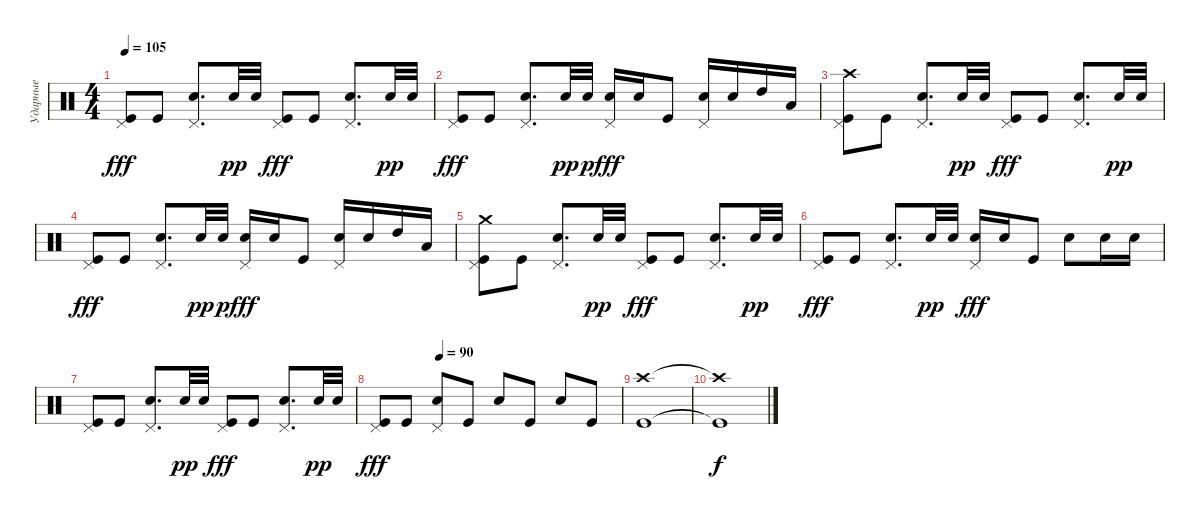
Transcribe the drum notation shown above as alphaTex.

\track ("Ударные" "Ударные") {instrument percussion}
\staff {score}
\articulation defaults
\ts (4 4)
\tempo 105
\clef neutral
\ks c
("Kick (hit)" "Pedal Hi-Hat (hit)").8{dy fff} "Kick (hit)".8 ("Snare (hit) 2" "Pedal Hi-Hat (hit)").8{d} "Snare (hit) 2".32{dy pp} "Snare (hit) 2".32 ("Kick (hit)" "Pedal Hi-Hat (hit)").8{dy fff} "Kick (hit)".8 ("Snare (hit) 2" "Pedal Hi-Hat (hit)").8{d} "Snare (hit) 2".32{dy pp} "Snare (hit) 2".32 |
("Kick (hit)" "Pedal Hi-Hat (hit)").8{dy fff} "Kick (hit)".8 ("Snare (hit) 2" "Pedal Hi-Hat (hit)").8{d} "Snare (hit) 2".32{dy pp} "Snare (hit) 2".32{dy p} ("Snare (hit) 2" "Pedal Hi-Hat (hit)").16{dy fff} "Snare (hit) 2".16 "Kick (hit)".8 ("Snare (hit) 2" "Pedal Hi-Hat (hit)").16 "Snare (hit) 2".16 "High Tom (hit)".16 "Low Tom (hit)".16 |
("Pedal Hi-Hat (hit)" "Crash high (hit)" "Kick (hit)").8 "Kick (hit)".8 ("Snare (hit) 2" "Pedal Hi-Hat (hit)").8{d} "Snare (hit) 2".32{dy pp} "Snare (hit) 2".32 ("Kick (hit)" "Pedal Hi-Hat (hit)").8{dy fff} "Kick (hit)".8 ("Snare (hit) 2" "Pedal Hi-Hat (hit)").8{d} "Snare (hit) 2".32{dy pp} "Snare (hit) 2".32 |
("Kick (hit)" "Pedal Hi-Hat (hit)").8{dy fff} "Kick (hit)".8 ("Snare (hit) 2" "Pedal Hi-Hat (hit)").8{d} "Snare (hit) 2".32{dy pp} "Snare (hit) 2".32{dy p} ("Snare (hit) 2" "Pedal Hi-Hat (hit)").16{dy fff} "Snare (hit) 2".16 "Kick (hit)".8 ("Snare (hit) 2" "Pedal Hi-Hat (hit)").16 "Snare (hit) 2".16 "High Tom (hit)".16 "Low Tom (hit)".16 |
("Kick (hit)" "Pedal Hi-Hat (hit)" "Crash medium (hit)").8 "Kick (hit)".8 ("Snare (hit) 2" "Pedal Hi-Hat (hit)").8{d} "Snare (hit) 2".32{dy pp} "Snare (hit) 2".32 ("Kick (hit)" "Pedal Hi-Hat (hit)").8{dy fff} "Kick (hit)".8 ("Snare (hit) 2" "Pedal Hi-Hat (hit)").8{d} "Snare (hit) 2".32{dy pp} "Snare (hit) 2".32 |
("Kick (hit)" "Pedal Hi-Hat (hit)").8{dy fff} "Kick (hit)".8 ("Snare (hit) 2" "Pedal Hi-Hat (hit)").8{d} "Snare (hit) 2".32{dy pp} "Snare (hit) 2".32 ("Snare (hit) 2" "Pedal Hi-Hat (hit)").16{dy fff} "Snare (hit) 2".16 "Kick (hit)".8 "Snare (hit) 2".8 "Snare (hit) 2".16 "Snare (hit) 2".16 |
("Kick (hit)" "Pedal Hi-Hat (hit)").8 "Kick (hit)".8 ("Snare (hit) 2" "Pedal Hi-Hat (hit)").8{d} "Snare (hit) 2".32{dy pp} "Snare (hit) 2".32 ("Kick (hit)" "Pedal Hi-Hat (hit)").8{dy fff} "Kick (hit)".8 ("Snare (hit) 2" "Pedal Hi-Hat (hit)").8{d} "Snare (hit) 2".32{dy pp} "Snare (hit) 2".32 |
\tempo (90 0.25)
("Kick (hit)" "Pedal Hi-Hat (hit)").8{dy fff} "Kick (hit)".8 ("Snare (hit) 2" "Pedal Hi-Hat (hit)").8 "Kick (hit)".8 "Snare (hit) 2".8 "Kick (hit)".8 "Snare (hit) 2".8 "Kick (hit)".8 |
("Kick (hit)" "Crash high (hit)").1{volume 7} |
("Kick (hit)"{t} "Crash high (hit)"{t}).1{dy f}
